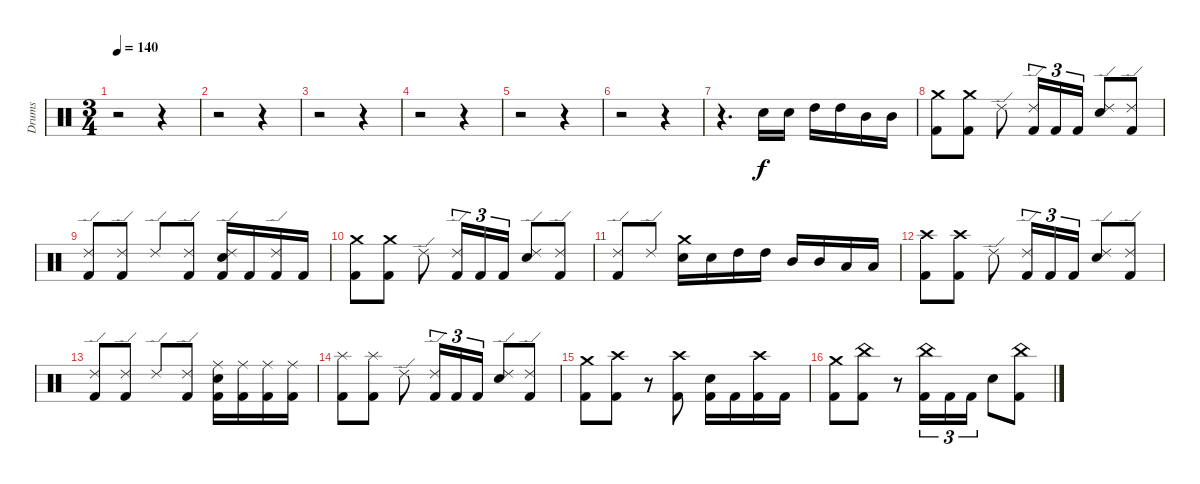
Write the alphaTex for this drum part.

\track ("Drums" "Drums") {instrument percussion}
\staff {score}
\articulation defaults
\ts (3 4)
\tempo 140
\clef neutral
\ks c
r.2{dy f} r.4 |
r.2 r.4 |
r.2 r.4 |
r.2 r.4 |
r.2 r.4 |
r.2 r.4 |
r.4{d} "Electric Snare (hit)".16 "Electric Snare (hit)".16 "High Tom (hit)".16 "High Tom (hit)".16 "Mid Tom (hit)".16 "Mid Tom (hit)".16 |
("Kick (hit) 2" "Crash medium (hit)").8 ("Kick (hit) 2" "Crash medium (hit)").8 "Ride (edge) 2".8 ("Kick (hit) 2" "Ride (edge) 2").16{tu (3 2)} "Kick (hit) 2".16{tu (3 2)} "Kick (hit) 2".16{tu (3 2)} ("Electric Snare (hit)" "Ride (edge) 2").8 ("Kick (hit) 2" "Ride (edge) 2").8 |
("Kick (hit) 2" "Ride (edge) 2").8 ("Kick (hit) 2" "Ride (edge) 2").8 "Ride (edge) 2".8 ("Kick (hit) 2" "Ride (edge) 2").8 ("Kick (hit) 2" "Electric Snare (hit)" "Ride (edge) 2").16 "Kick (hit) 2".16 ("Kick (hit) 2" "Ride (edge) 2").16 "Kick (hit) 2".16 |
("Kick (hit) 2" "Crash medium (hit)").8 ("Kick (hit) 2" "Crash medium (hit)").8 "Ride (edge) 2".8 ("Kick (hit) 2" "Ride (edge) 2").16{tu (3 2)} "Kick (hit) 2".16{tu (3 2)} "Kick (hit) 2".16{tu (3 2)} ("Electric Snare (hit)" "Ride (edge) 2").8 ("Kick (hit) 2" "Ride (edge) 2").8 |
("Kick (hit) 2" "Ride (edge) 2").8 "Ride (edge) 2".8 ("Electric Snare (hit)" "Crash medium (hit)").16 "Electric Snare (hit)".16 "High Tom (hit)".16 "High Tom (hit)".16 "Mid Tom (hit)".16 "Mid Tom (hit)".16 "Low Tom (hit)".16 "Low Tom (hit)".16 |
("Kick (hit) 2" "Crash high (hit)").8 ("Kick (hit) 2" "Crash high (hit)").8 "Ride (edge) 2".8 ("Kick (hit) 2" "Ride (edge) 2").16{tu (3 2)} "Kick (hit) 2".16{tu (3 2)} "Kick (hit) 2".16{tu (3 2)} ("Electric Snare (hit)" "Ride (edge) 2").8 ("Kick (hit) 2" "Ride (edge) 2").8 |
("Kick (hit) 2" "Ride (edge) 2").8 ("Kick (hit) 2" "Ride (edge) 2").8 "Ride (edge) 2".8 ("Kick (hit) 2" "Ride (edge) 2").8 ("Kick (hit) 2" "Electric Snare (hit)" "Ride (middle)").16 ("Kick (hit) 2" "Ride (middle)").16 ("Kick (hit) 2" "Ride (middle)").16 ("Kick (hit) 2" "Ride (middle)").16 |
("Kick (hit) 2" "Splash (hit)").8 ("Kick (hit) 2" "Splash (hit)").8 "Ride (edge) 2".8 ("Kick (hit) 2" "Ride (edge) 2").16{tu (3 2)} "Kick (hit) 2".16{tu (3 2)} "Kick (hit) 2".16{tu (3 2)} ("Electric Snare (hit)" "Ride (edge) 2").8 ("Kick (hit) 2" "Ride (edge) 2").8 |
("Kick (hit) 2" "Crash medium (hit)").8 ("Kick (hit) 2" "Crash high (hit)").8 r.8 ("Kick (hit) 2" "Crash high (hit)").8 ("Kick (hit) 2" "Electric Snare (hit)").16 "Kick (hit) 2".16 ("Kick (hit) 2" "Crash high (hit)").16 "Kick (hit) 2".16 |
("Kick (hit) 2" "Crash medium (hit)").8 ("Kick (hit) 2" "China (hit)").8 r.8 ("Kick (hit) 2" "China (hit)").16{tu (3 2)} "Kick (hit) 2".16{tu (3 2)} "Kick (hit) 2".16{tu (3 2)} "Electric Snare (hit)".8 ("Kick (hit) 2" "China (hit)").8
